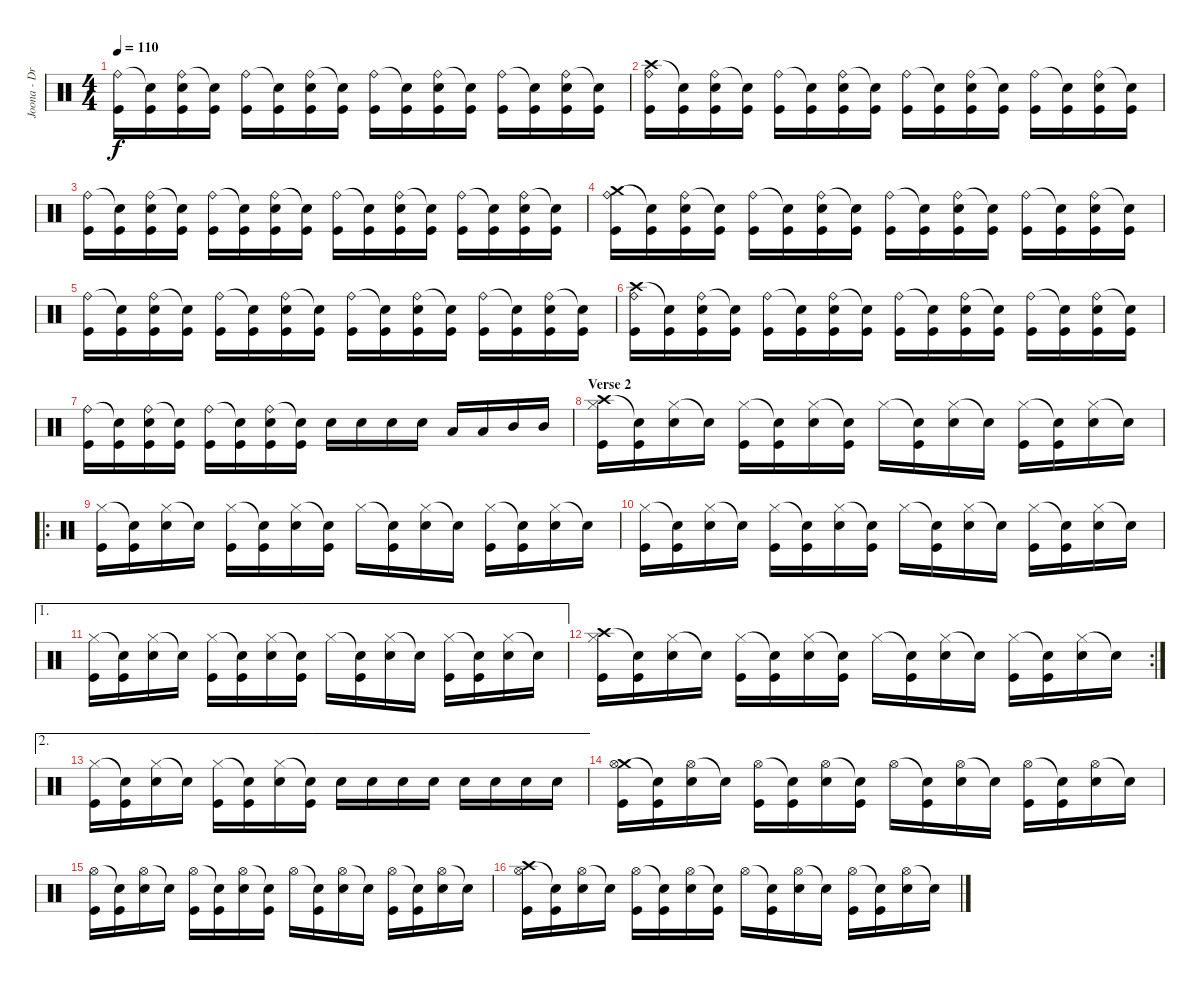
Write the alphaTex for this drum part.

\track ("Joona - Drums" "Joona - Dr") {instrument percussion}
\staff {score}
\articulation defaults
\ts (4 4)
\tempo 110
\clef neutral
\ks c
("Ride (bell)" "Kick (hit)").16{dy f} ("Snare (hit)"{t} "Kick (hit)").16 ("Ride (bell)" "Snare (hit) 2" "Kick (hit)").16 ("Snare (hit)"{t} "Kick (hit)").16 ("Ride (bell)" "Kick (hit)").16 ("Snare (hit)"{t} "Kick (hit)").16 ("Ride (bell)" "Snare (hit) 2" "Kick (hit)").16 ("Snare (hit)"{t} "Kick (hit)").16 ("Ride (bell)" "Kick (hit)").16 ("Snare (hit)"{t} "Kick (hit)").16 ("Ride (bell)" "Snare (hit) 2" "Kick (hit)").16 ("Snare (hit)"{t} "Kick (hit)").16 ("Ride (bell)" "Kick (hit)").16 ("Snare (hit)"{t} "Kick (hit)").16 ("Ride (bell)" "Snare (hit) 2" "Kick (hit)").16 ("Snare (hit)"{t} "Kick (hit)").16 |
("Crash high (hit)" "Ride (bell)" "Kick (hit)").16 ("Snare (hit)"{t} "Kick (hit)").16 ("Ride (bell)" "Snare (hit) 2" "Kick (hit)").16 ("Snare (hit)"{t} "Kick (hit)").16 ("Ride (bell)" "Kick (hit)").16 ("Snare (hit)"{t} "Kick (hit)").16 ("Ride (bell)" "Snare (hit) 2" "Kick (hit)").16 ("Snare (hit)"{t} "Kick (hit)").16 ("Ride (bell)" "Kick (hit)").16 ("Snare (hit)"{t} "Kick (hit)").16 ("Ride (bell)" "Snare (hit) 2" "Kick (hit)").16 ("Snare (hit)"{t} "Kick (hit)").16 ("Ride (bell)" "Kick (hit)").16 ("Snare (hit)"{t} "Kick (hit)").16 ("Ride (bell)" "Snare (hit) 2" "Kick (hit)").16 ("Snare (hit)"{t} "Kick (hit)").16 |
("Ride (bell)" "Kick (hit)").16 ("Snare (hit)"{t} "Kick (hit)").16 ("Ride (bell)" "Snare (hit) 2" "Kick (hit)").16 ("Snare (hit)"{t} "Kick (hit)").16 ("Ride (bell)" "Kick (hit)").16 ("Snare (hit)"{t} "Kick (hit)").16 ("Ride (bell)" "Snare (hit) 2" "Kick (hit)").16 ("Snare (hit)"{t} "Kick (hit)").16 ("Ride (bell)" "Kick (hit)").16 ("Snare (hit)"{t} "Kick (hit)").16 ("Ride (bell)" "Snare (hit) 2" "Kick (hit)").16 ("Snare (hit)"{t} "Kick (hit)").16 ("Ride (bell)" "Kick (hit)").16 ("Snare (hit)"{t} "Kick (hit)").16 ("Ride (bell)" "Snare (hit) 2" "Kick (hit)").16 ("Snare (hit)"{t} "Kick (hit)").16 |
("Crash medium (hit)" "Ride (bell)" "Kick (hit)").16 ("Snare (hit)"{t} "Kick (hit)").16 ("Ride (bell)" "Snare (hit) 2" "Kick (hit)").16 ("Snare (hit)"{t} "Kick (hit)").16 ("Ride (bell)" "Kick (hit)").16 ("Snare (hit)"{t} "Kick (hit)").16 ("Ride (bell)" "Snare (hit) 2" "Kick (hit)").16 ("Snare (hit)"{t} "Kick (hit)").16 ("Ride (bell)" "Kick (hit)").16 ("Snare (hit)"{t} "Kick (hit)").16 ("Ride (bell)" "Snare (hit) 2" "Kick (hit)").16 ("Snare (hit)"{t} "Kick (hit)").16 ("Ride (bell)" "Kick (hit)").16 ("Snare (hit)"{t} "Kick (hit)").16 ("Ride (bell)" "Snare (hit) 2" "Kick (hit)").16 ("Snare (hit)"{t} "Kick (hit)").16 |
("Ride (bell)" "Kick (hit)").16 ("Snare (hit)"{t} "Kick (hit)").16 ("Ride (bell)" "Snare (hit) 2" "Kick (hit)").16 ("Snare (hit)"{t} "Kick (hit)").16 ("Ride (bell)" "Kick (hit)").16 ("Snare (hit)"{t} "Kick (hit)").16 ("Ride (bell)" "Snare (hit) 2" "Kick (hit)").16 ("Snare (hit)"{t} "Kick (hit)").16 ("Ride (bell)" "Kick (hit)").16 ("Snare (hit)"{t} "Kick (hit)").16 ("Ride (bell)" "Snare (hit) 2" "Kick (hit)").16 ("Snare (hit)"{t} "Kick (hit)").16 ("Ride (bell)" "Kick (hit)").16 ("Snare (hit)"{t} "Kick (hit)").16 ("Ride (bell)" "Snare (hit) 2" "Kick (hit)").16 ("Snare (hit)"{t} "Kick (hit)").16 |
("Crash high (hit)" "Ride (bell)" "Kick (hit)").16 ("Snare (hit)"{t} "Kick (hit)").16 ("Ride (bell)" "Snare (hit) 2" "Kick (hit)").16 ("Snare (hit)"{t} "Kick (hit)").16 ("Ride (bell)" "Kick (hit)").16 ("Snare (hit)"{t} "Kick (hit)").16 ("Ride (bell)" "Snare (hit) 2" "Kick (hit)").16 ("Snare (hit)"{t} "Kick (hit)").16 ("Ride (bell)" "Kick (hit)").16 ("Snare (hit)"{t} "Kick (hit)").16 ("Ride (bell)" "Snare (hit) 2" "Kick (hit)").16 ("Snare (hit)"{t} "Kick (hit)").16 ("Ride (bell)" "Kick (hit)").16 ("Snare (hit)"{t} "Kick (hit)").16 ("Ride (bell)" "Snare (hit) 2" "Kick (hit)").16 ("Snare (hit)"{t} "Kick (hit)").16 |
("Ride (bell)" "Kick (hit)").16 ("Snare (hit)"{t} "Kick (hit)").16 ("Ride (bell)" "Snare (hit) 2" "Kick (hit)").16 ("Snare (hit)"{t} "Kick (hit)").16 ("Ride (bell)" "Kick (hit)").16 ("Snare (hit)"{t} "Kick (hit)").16 ("Ride (bell)" "Snare (hit) 2" "Kick (hit)").16 ("Snare (hit)"{t} "Kick (hit)").16 "Snare (hit) 2".16 "Snare (hit) 2".16 "Snare (hit) 2".16 "Snare (hit) 2".16 "Low Tom (hit)".16 "Low Tom (hit)".16 "Mid Tom (hit)".16 "Mid Tom (hit)".16 |
\section ("" "Verse 2")
("Crash high (hit)" "Hi-Hat (closed)" "Kick (hit)").16 ("Snare (hit)"{t} "Kick (hit)").16 ("Hi-Hat (closed)" "Snare (hit) 2").16 "Snare (hit)"{t}.16 ("Hi-Hat (closed)" "Kick (hit)").16 ("Snare (hit)"{t} "Kick (hit)").16 ("Hi-Hat (closed)" "Snare (hit) 2").16 ("Snare (hit)"{t} "Kick (hit)").16 "Hi-Hat (closed)".16 ("Snare (hit)"{t} "Kick (hit)").16 ("Hi-Hat (closed)" "Snare (hit) 2").16 "Snare (hit)"{t}.16 ("Hi-Hat (closed)" "Kick (hit)").16 ("Snare (hit)"{t} "Kick (hit)").16 ("Hi-Hat (closed)" "Snare (hit) 2").16 "Snare (hit)"{t}.16 |
\ro
("Hi-Hat (closed)" "Kick (hit)").16 ("Snare (hit)"{t} "Kick (hit)").16 ("Hi-Hat (closed)" "Snare (hit) 2").16 "Snare (hit)"{t}.16 ("Hi-Hat (closed)" "Kick (hit)").16 ("Snare (hit)"{t} "Kick (hit)").16 ("Hi-Hat (closed)" "Snare (hit) 2").16 ("Snare (hit)"{t} "Kick (hit)").16 "Hi-Hat (closed)".16 ("Snare (hit)"{t} "Kick (hit)").16 ("Hi-Hat (closed)" "Snare (hit) 2").16 "Snare (hit)"{t}.16 ("Hi-Hat (closed)" "Kick (hit)").16 ("Snare (hit)"{t} "Kick (hit)").16 ("Hi-Hat (closed)" "Snare (hit) 2").16 "Snare (hit)"{t}.16 |
("Hi-Hat (closed)" "Kick (hit)").16 ("Snare (hit)"{t} "Kick (hit)").16 ("Hi-Hat (closed)" "Snare (hit) 2").16 "Snare (hit)"{t}.16 ("Hi-Hat (closed)" "Kick (hit)").16 ("Snare (hit)"{t} "Kick (hit)").16 ("Hi-Hat (closed)" "Snare (hit) 2").16 ("Snare (hit)"{t} "Kick (hit)").16 "Hi-Hat (closed)".16 ("Snare (hit)"{t} "Kick (hit)").16 ("Hi-Hat (closed)" "Snare (hit) 2").16 "Snare (hit)"{t}.16 ("Hi-Hat (closed)" "Kick (hit)").16 ("Snare (hit)"{t} "Kick (hit)").16 ("Hi-Hat (closed)" "Snare (hit) 2").16 "Snare (hit)"{t}.16 |
\ae 1
("Hi-Hat (closed)" "Kick (hit)").16 ("Snare (hit)"{t} "Kick (hit)").16 ("Hi-Hat (closed)" "Snare (hit) 2").16 "Snare (hit)"{t}.16 ("Hi-Hat (closed)" "Kick (hit)").16 ("Snare (hit)"{t} "Kick (hit)").16 ("Hi-Hat (closed)" "Snare (hit) 2").16 ("Snare (hit)"{t} "Kick (hit)").16 "Hi-Hat (closed)".16 ("Snare (hit)"{t} "Kick (hit)").16 ("Hi-Hat (closed)" "Snare (hit) 2").16 "Snare (hit)"{t}.16 ("Hi-Hat (closed)" "Kick (hit)").16 ("Snare (hit)"{t} "Kick (hit)").16 ("Hi-Hat (closed)" "Snare (hit) 2").16 "Snare (hit)"{t}.16 |
\rc 2
("Crash high (hit)" "Hi-Hat (closed)" "Kick (hit)").16 ("Snare (hit)"{t} "Kick (hit)").16 ("Hi-Hat (closed)" "Snare (hit) 2").16 "Snare (hit)"{t}.16 ("Hi-Hat (closed)" "Kick (hit)").16 ("Snare (hit)"{t} "Kick (hit)").16 ("Hi-Hat (closed)" "Snare (hit) 2").16 ("Snare (hit)"{t} "Kick (hit)").16 "Hi-Hat (closed)".16 ("Snare (hit)"{t} "Kick (hit)").16 ("Hi-Hat (closed)" "Snare (hit) 2").16 "Snare (hit)"{t}.16 ("Hi-Hat (closed)" "Kick (hit)").16 ("Snare (hit)"{t} "Kick (hit)").16 ("Hi-Hat (closed)" "Snare (hit) 2").16 "Snare (hit)"{t}.16 |
\ae 2
("Hi-Hat (closed)" "Kick (hit)").16 ("Snare (hit)"{t} "Kick (hit)").16 ("Hi-Hat (closed)" "Snare (hit) 2").16 "Snare (hit)"{t}.16 ("Hi-Hat (closed)" "Kick (hit)").16 ("Snare (hit)"{t} "Kick (hit)").16 ("Hi-Hat (closed)" "Snare (hit) 2").16 ("Snare (hit)"{t} "Kick (hit)").16 "Snare (hit) 2".16 "Snare (hit) 2".16 "Snare (hit) 2".16 "Snare (hit) 2".16 "Snare (hit) 2".16 "Snare (hit) 2".16 "Snare (hit) 2".16 "Snare (hit) 2".16 |
("Crash medium (hit)" "Hi-Hat (open)" "Kick (hit)").16 ("Snare (hit)"{t} "Kick (hit)").16 ("Hi-Hat (open)" "Snare (hit) 2").16 "Snare (hit)"{t}.16 ("Hi-Hat (open)" "Kick (hit)").16 ("Snare (hit)"{t} "Kick (hit)").16 ("Hi-Hat (open)" "Snare (hit) 2").16 ("Snare (hit)"{t} "Kick (hit)").16 "Hi-Hat (open)".16 ("Snare (hit)"{t} "Kick (hit)").16 ("Hi-Hat (open)" "Snare (hit) 2").16 "Snare (hit)"{t}.16 ("Hi-Hat (open)" "Kick (hit)").16 ("Snare (hit)"{t} "Kick (hit)").16 ("Hi-Hat (open)" "Snare (hit) 2").16 "Snare (hit)"{t}.16 |
("Hi-Hat (open)" "Kick (hit)").16 ("Snare (hit)"{t} "Kick (hit)").16 ("Hi-Hat (open)" "Snare (hit) 2").16 "Snare (hit)"{t}.16 ("Hi-Hat (open)" "Kick (hit)").16 ("Snare (hit)"{t} "Kick (hit)").16 ("Hi-Hat (open)" "Snare (hit) 2").16 ("Snare (hit)"{t} "Kick (hit)").16 "Hi-Hat (open)".16 ("Snare (hit)"{t} "Kick (hit)").16 ("Hi-Hat (open)" "Snare (hit) 2").16 "Snare (hit)"{t}.16 ("Hi-Hat (open)" "Kick (hit)").16 ("Snare (hit)"{t} "Kick (hit)").16 ("Hi-Hat (open)" "Snare (hit) 2").16 "Snare (hit)"{t}.16 |
("Crash high (hit)" "Hi-Hat (open)" "Kick (hit)").16 ("Snare (hit)"{t} "Kick (hit)").16 ("Hi-Hat (open)" "Snare (hit) 2").16 "Snare (hit)"{t}.16 ("Hi-Hat (open)" "Kick (hit)").16 ("Snare (hit)"{t} "Kick (hit)").16 ("Hi-Hat (open)" "Snare (hit) 2").16 ("Snare (hit)"{t} "Kick (hit)").16 "Hi-Hat (open)".16 ("Snare (hit)"{t} "Kick (hit)").16 ("Hi-Hat (open)" "Snare (hit) 2").16 "Snare (hit)"{t}.16 ("Hi-Hat (open)" "Kick (hit)").16 ("Snare (hit)"{t} "Kick (hit)").16 ("Hi-Hat (open)" "Snare (hit) 2").16 "Snare (hit)"{t}.16
